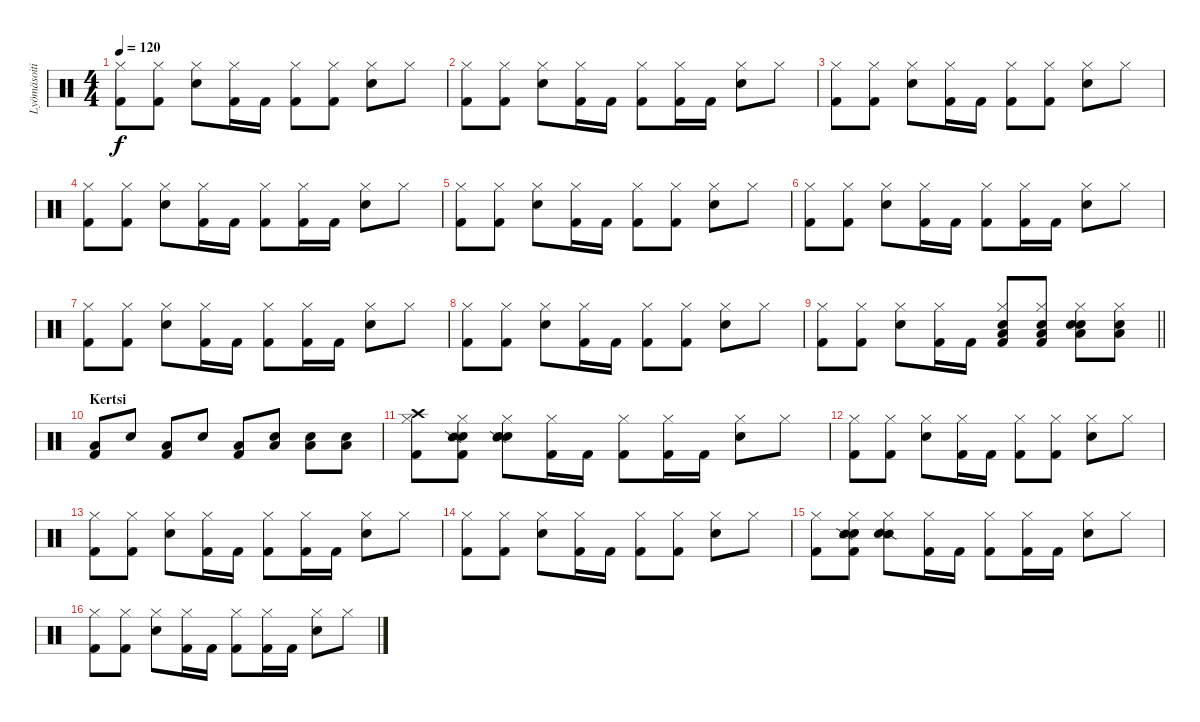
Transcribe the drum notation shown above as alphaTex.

\track ("Lyömäsoitin" "Lyömäsoiti") {instrument percussion}
\staff {score}
\articulation defaults
\ts (4 4)
\tempo 120
\clef neutral
\ks c
("Kick (hit) 2" "Hi-Hat (closed)").8{dy f} ("Kick (hit) 2" "Hi-Hat (closed)").8 ("Snare (hit) 2" "Hi-Hat (closed)").8 ("Kick (hit) 2" "Hi-Hat (closed)").16 "Kick (hit) 2".16 ("Kick (hit) 2" "Hi-Hat (closed)").8 ("Kick (hit) 2" "Hi-Hat (closed)").8 ("Snare (hit) 2" "Hi-Hat (closed)").8 "Hi-Hat (closed)".8 |
("Kick (hit) 2" "Hi-Hat (closed)").8 ("Kick (hit) 2" "Hi-Hat (closed)").8 ("Snare (hit) 2" "Hi-Hat (closed)").8 ("Kick (hit) 2" "Hi-Hat (closed)").16 "Kick (hit) 2".16 ("Kick (hit) 2" "Hi-Hat (closed)").8 ("Kick (hit) 2" "Hi-Hat (closed)").16 "Kick (hit) 2".16 ("Snare (hit) 2" "Hi-Hat (closed)").8 "Hi-Hat (closed)".8 |
("Kick (hit) 2" "Hi-Hat (closed)").8 ("Kick (hit) 2" "Hi-Hat (closed)").8 ("Snare (hit) 2" "Hi-Hat (closed)").8 ("Kick (hit) 2" "Hi-Hat (closed)").16 "Kick (hit) 2".16 ("Kick (hit) 2" "Hi-Hat (closed)").8 ("Kick (hit) 2" "Hi-Hat (closed)").8 ("Snare (hit) 2" "Hi-Hat (closed)").8 "Hi-Hat (closed)".8 |
("Kick (hit) 2" "Hi-Hat (closed)").8 ("Kick (hit) 2" "Hi-Hat (closed)").8 ("Snare (hit) 2" "Hi-Hat (closed)").8 ("Kick (hit) 2" "Hi-Hat (closed)").16 "Kick (hit) 2".16 ("Kick (hit) 2" "Hi-Hat (closed)").8 ("Kick (hit) 2" "Hi-Hat (closed)").16 "Kick (hit) 2".16 ("Snare (hit) 2" "Hi-Hat (closed)").8 "Hi-Hat (closed)".8 |
("Kick (hit) 2" "Hi-Hat (closed)").8 ("Kick (hit) 2" "Hi-Hat (closed)").8 ("Snare (hit) 2" "Hi-Hat (closed)").8 ("Kick (hit) 2" "Hi-Hat (closed)").16 "Kick (hit) 2".16 ("Kick (hit) 2" "Hi-Hat (closed)").8 ("Kick (hit) 2" "Hi-Hat (closed)").8 ("Snare (hit) 2" "Hi-Hat (closed)").8 "Hi-Hat (closed)".8 |
("Kick (hit) 2" "Hi-Hat (closed)").8 ("Kick (hit) 2" "Hi-Hat (closed)").8 ("Snare (hit) 2" "Hi-Hat (closed)").8 ("Kick (hit) 2" "Hi-Hat (closed)").16 "Kick (hit) 2".16 ("Kick (hit) 2" "Hi-Hat (closed)").8 ("Kick (hit) 2" "Hi-Hat (closed)").16 "Kick (hit) 2".16 ("Snare (hit) 2" "Hi-Hat (closed)").8 "Hi-Hat (closed)".8 |
("Kick (hit) 2" "Hi-Hat (closed)").8 ("Kick (hit) 2" "Hi-Hat (closed)").8 ("Snare (hit) 2" "Hi-Hat (closed)").8 ("Kick (hit) 2" "Hi-Hat (closed)").16 "Kick (hit) 2".16 ("Kick (hit) 2" "Hi-Hat (closed)").8 ("Kick (hit) 2" "Hi-Hat (closed)").16 "Kick (hit) 2".16 ("Snare (hit) 2" "Hi-Hat (closed)").8 "Hi-Hat (closed)".8 |
("Kick (hit) 2" "Hi-Hat (closed)").8 ("Kick (hit) 2" "Hi-Hat (closed)").8 ("Snare (hit) 2" "Hi-Hat (closed)").8 ("Kick (hit) 2" "Hi-Hat (closed)").16 "Kick (hit) 2".16 ("Kick (hit) 2" "Hi-Hat (closed)").8 ("Kick (hit) 2" "Hi-Hat (closed)").8 ("Snare (hit) 2" "Hi-Hat (closed)").8 "Hi-Hat (closed)".8 |
\barLineRight lightlight
("Kick (hit) 2" "Hi-Hat (closed)").8 ("Kick (hit) 2" "Hi-Hat (closed)").8 ("Snare (hit) 2" "Hi-Hat (closed)").8 ("Kick (hit) 2" "Hi-Hat (closed)").16 "Kick (hit) 2".16 ("Snare (hit) 2" "Low Floor Tom (hit)" "Kick (hit) 2" "Hi-Hat (closed)").8 ("Snare (hit) 2" "Low Floor Tom (hit)" "Kick (hit) 2" "Hi-Hat (closed)").8 ("Snare (hit) 2" "Low Floor Tom (hit)" "Snare (hit) 2" "Hi-Hat (closed)").8 ("Snare (hit) 2" "Low Floor Tom (hit)" "Hi-Hat (closed)").8 |
\section ("" "Kertsi")
("Low Floor Tom (hit)" "Kick (hit) 2").8 "Snare (hit) 2".8 ("Low Floor Tom (hit)" "Kick (hit) 2").8 "Snare (hit) 2".8 ("Low Floor Tom (hit)" "Kick (hit) 2").8 ("Low Tom (hit)" "Snare (hit) 2").8 ("Low Tom (hit)" "Snare (hit) 2").8 ("Low Tom (hit)" "Snare (hit) 2").8 |
("Crash high (hit)" "Kick (hit) 2" "Hi-Hat (closed)").8 ("Snare (hit) 2" "Snare (side stick) 2" "Kick (hit) 2" "Hi-Hat (closed)").8 ("Snare (hit) 2" "Snare (side stick) 2" "Snare (hit) 2" "Hi-Hat (closed)").8 ("Kick (hit) 2" "Hi-Hat (closed)").16 "Kick (hit) 2".16 ("Kick (hit) 2" "Hi-Hat (closed)").8 ("Kick (hit) 2" "Hi-Hat (closed)").16 "Kick (hit) 2".16 ("Snare (hit) 2" "Hi-Hat (closed)").8 "Hi-Hat (closed)".8 |
("Kick (hit) 2" "Hi-Hat (closed)").8 ("Kick (hit) 2" "Hi-Hat (closed)").8 ("Snare (hit) 2" "Hi-Hat (closed)").8 ("Kick (hit) 2" "Hi-Hat (closed)").16 "Kick (hit) 2".16 ("Kick (hit) 2" "Hi-Hat (closed)").8 ("Kick (hit) 2" "Hi-Hat (closed)").8 ("Snare (hit) 2" "Hi-Hat (closed)").8 "Hi-Hat (closed)".8 |
("Kick (hit) 2" "Hi-Hat (closed)").8 ("Kick (hit) 2" "Hi-Hat (closed)").8 ("Snare (hit) 2" "Hi-Hat (closed)").8 ("Kick (hit) 2" "Hi-Hat (closed)").16 "Kick (hit) 2".16 ("Kick (hit) 2" "Hi-Hat (closed)").8 ("Kick (hit) 2" "Hi-Hat (closed)").16 "Kick (hit) 2".16 ("Snare (hit) 2" "Hi-Hat (closed)").8 "Hi-Hat (closed)".8 |
("Kick (hit) 2" "Hi-Hat (closed)").8 ("Kick (hit) 2" "Hi-Hat (closed)").8 ("Snare (hit) 2" "Hi-Hat (closed)").8 ("Kick (hit) 2" "Hi-Hat (closed)").16 "Kick (hit) 2".16 ("Kick (hit) 2" "Hi-Hat (closed)").8 ("Kick (hit) 2" "Hi-Hat (closed)").8 ("Snare (hit) 2" "Hi-Hat (closed)").8 "Hi-Hat (closed)".8 |
("Kick (hit) 2" "Hi-Hat (closed)").8 ("Snare (hit) 2" "Snare (side stick) 2" "Kick (hit) 2" "Hi-Hat (closed)").8 ("Snare (side stick) 2" "Snare (hit) 2" "Hi-Hat (closed)").8 ("Kick (hit) 2" "Hi-Hat (closed)").16 "Kick (hit) 2".16 ("Kick (hit) 2" "Hi-Hat (closed)").8 ("Kick (hit) 2" "Hi-Hat (closed)").16 "Kick (hit) 2".16 ("Snare (hit) 2" "Hi-Hat (closed)").8 "Hi-Hat (closed)".8 |
("Kick (hit) 2" "Hi-Hat (closed)").8 ("Kick (hit) 2" "Hi-Hat (closed)").8 ("Snare (hit) 2" "Hi-Hat (closed)").8 ("Kick (hit) 2" "Hi-Hat (closed)").16 "Kick (hit) 2".16 ("Kick (hit) 2" "Hi-Hat (closed)").8 ("Kick (hit) 2" "Hi-Hat (closed)").16 "Kick (hit) 2".16 ("Snare (hit) 2" "Hi-Hat (closed)").8 "Hi-Hat (closed)".8
